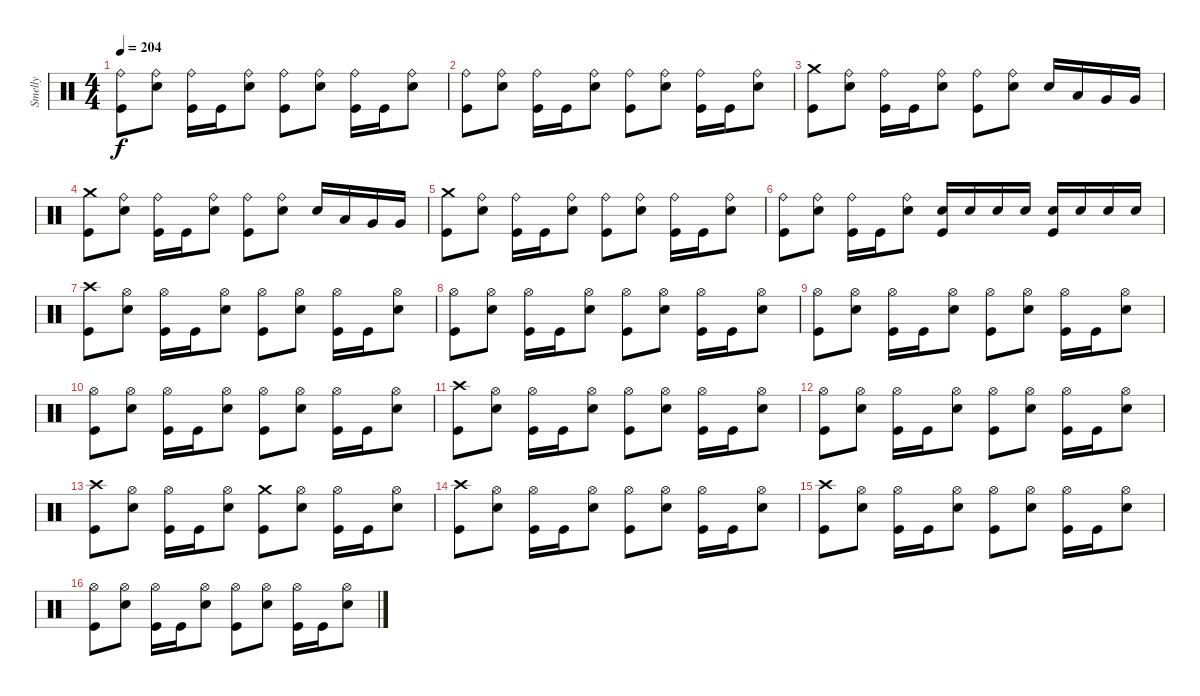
\track ("Smelly" "Smelly") {instrument percussion}
\staff {score}
\articulation defaults
\ts (4 4)
\tempo 204
\clef neutral
\ks c
("Ride (bell)" "Kick (hit)").8{dy f} ("Ride (bell)" "Snare (hit) 2").8 ("Ride (bell)" "Kick (hit)").16 "Kick (hit)".16 ("Ride (bell)" "Snare (hit) 2").8 ("Ride (bell)" "Kick (hit)").8 ("Ride (bell)" "Snare (hit) 2").8 ("Ride (bell)" "Kick (hit)").16 "Kick (hit)".16 ("Ride (bell)" "Snare (hit) 2").8 |
("Ride (bell)" "Kick (hit)").8 ("Ride (bell)" "Snare (hit) 2").8 ("Ride (bell)" "Kick (hit)").16 "Kick (hit)".16 ("Ride (bell)" "Snare (hit) 2").8 ("Ride (bell)" "Kick (hit)").8 ("Ride (bell)" "Snare (hit) 2").8 ("Ride (bell)" "Kick (hit)").16 "Kick (hit)".16 ("Ride (bell)" "Snare (hit) 2").8 |
("Crash medium (hit)" "Kick (hit)").8 ("Ride (bell)" "Snare (hit) 2").8 ("Ride (bell)" "Kick (hit)").16 "Kick (hit)".16 ("Ride (bell)" "Snare (hit) 2").8 ("Ride (bell)" "Kick (hit)").8 ("Ride (bell)" "Snare (hit) 2").8 "Snare (hit) 2".16 "Low Tom (hit)".16 "Very Low Tom (hit)".16 "Very Low Tom (hit)".16 |
("Crash medium (hit)" "Kick (hit)").8 ("Ride (bell)" "Snare (hit) 2").8 ("Ride (bell)" "Kick (hit)").16 "Kick (hit)".16 ("Ride (bell)" "Snare (hit) 2").8 ("Ride (bell)" "Kick (hit)").8 ("Ride (bell)" "Snare (hit) 2").8 "Snare (hit) 2".16 "Low Tom (hit)".16 "Very Low Tom (hit)".16 "Very Low Tom (hit)".16 |
("Crash medium (hit)" "Kick (hit)").8 ("Ride (bell)" "Snare (hit) 2").8 ("Ride (bell)" "Kick (hit)").16 "Kick (hit)".16 ("Ride (bell)" "Snare (hit) 2").8 ("Ride (bell)" "Kick (hit)").8 ("Ride (bell)" "Snare (hit) 2").8 ("Ride (bell)" "Kick (hit)").16 "Kick (hit)".16 ("Ride (bell)" "Snare (hit) 2").8 |
("Ride (bell)" "Kick (hit)").8 ("Ride (bell)" "Snare (hit) 2").8 ("Ride (bell)" "Kick (hit)").16 "Kick (hit)".16 ("Ride (bell)" "Snare (hit) 2").8 ("Snare (hit) 2" "Kick (hit)").16 "Snare (hit) 2".16 "Snare (hit) 2".16 "Snare (hit) 2".16 ("Snare (hit) 2" "Kick (hit)").16 "Snare (hit) 2".16 "Snare (hit) 2".16 "Snare (hit) 2".16 |
("Crash high (hit)" "Kick (hit)").8 ("Hi-Hat (open)" "Snare (hit) 2").8 ("Hi-Hat (open)" "Kick (hit)").16 "Kick (hit)".16 ("Hi-Hat (open)" "Snare (hit) 2").8 ("Hi-Hat (open)" "Kick (hit)").8 ("Hi-Hat (open)" "Snare (hit) 2").8 ("Hi-Hat (open)" "Kick (hit)").16 "Kick (hit)".16 ("Hi-Hat (open)" "Snare (hit) 2").8 |
("Hi-Hat (open)" "Kick (hit)").8 ("Hi-Hat (open)" "Snare (hit) 2").8 ("Hi-Hat (open)" "Kick (hit)").16 "Kick (hit)".16 ("Hi-Hat (open)" "Snare (hit) 2").8 ("Hi-Hat (open)" "Kick (hit)").8 ("Hi-Hat (open)" "Snare (hit) 2").8 ("Hi-Hat (open)" "Kick (hit)").16 "Kick (hit)".16 ("Hi-Hat (open)" "Snare (hit) 2").8 |
("Hi-Hat (open)" "Kick (hit)").8 ("Hi-Hat (open)" "Snare (hit) 2").8 ("Hi-Hat (open)" "Kick (hit)").16 "Kick (hit)".16 ("Hi-Hat (open)" "Snare (hit) 2").8 ("Hi-Hat (open)" "Kick (hit)").8 ("Hi-Hat (open)" "Snare (hit) 2").8 ("Hi-Hat (open)" "Kick (hit)").16 "Kick (hit)".16 ("Hi-Hat (open)" "Snare (hit) 2").8 |
("Hi-Hat (open)" "Kick (hit)").8 ("Hi-Hat (open)" "Snare (hit) 2").8 ("Hi-Hat (open)" "Kick (hit)").16 "Kick (hit)".16 ("Hi-Hat (open)" "Snare (hit) 2").8 ("Hi-Hat (open)" "Kick (hit)").8 ("Hi-Hat (open)" "Snare (hit) 2").8 ("Hi-Hat (open)" "Kick (hit)").16 "Kick (hit)".16 ("Hi-Hat (open)" "Snare (hit) 2").8 |
("Crash high (hit)" "Kick (hit)").8 ("Hi-Hat (open)" "Snare (hit) 2").8 ("Hi-Hat (open)" "Kick (hit)").16 "Kick (hit)".16 ("Hi-Hat (open)" "Snare (hit) 2").8 ("Hi-Hat (open)" "Kick (hit)").8 ("Hi-Hat (open)" "Snare (hit) 2").8 ("Hi-Hat (open)" "Kick (hit)").16 "Kick (hit)".16 ("Hi-Hat (open)" "Snare (hit) 2").8 |
("Hi-Hat (open)" "Kick (hit)").8 ("Hi-Hat (open)" "Snare (hit) 2").8 ("Hi-Hat (open)" "Kick (hit)").16 "Kick (hit)".16 ("Hi-Hat (open)" "Snare (hit) 2").8 ("Hi-Hat (open)" "Kick (hit)").8 ("Hi-Hat (open)" "Snare (hit) 2").8 ("Hi-Hat (open)" "Kick (hit)").16 "Kick (hit)".16 ("Hi-Hat (open)" "Snare (hit) 2").8 |
("Crash high (hit)" "Kick (hit)").8 ("Hi-Hat (open)" "Snare (hit) 2").8 ("Hi-Hat (open)" "Kick (hit)").16 "Kick (hit)".16 ("Hi-Hat (open)" "Snare (hit) 2").8 ("Crash medium (hit)" "Kick (hit)").8 ("Hi-Hat (open)" "Snare (hit) 2").8 ("Hi-Hat (open)" "Kick (hit)").16 "Kick (hit)".16 ("Hi-Hat (open)" "Snare (hit) 2").8 |
("Crash high (hit)" "Kick (hit)").8 ("Hi-Hat (open)" "Snare (hit) 2").8 ("Hi-Hat (open)" "Kick (hit)").16 "Kick (hit)".16 ("Hi-Hat (open)" "Snare (hit) 2").8 ("Hi-Hat (open)" "Kick (hit)").8 ("Hi-Hat (open)" "Snare (hit) 2").8 ("Hi-Hat (open)" "Kick (hit)").16 "Kick (hit)".16 ("Hi-Hat (open)" "Snare (hit) 2").8 |
("Crash high (hit)" "Kick (hit)").8 ("Hi-Hat (open)" "Snare (hit) 2").8 ("Hi-Hat (open)" "Kick (hit)").16 "Kick (hit)".16 ("Hi-Hat (open)" "Snare (hit) 2").8 ("Hi-Hat (open)" "Kick (hit)").8 ("Hi-Hat (open)" "Snare (hit) 2").8 ("Hi-Hat (open)" "Kick (hit)").16 "Kick (hit)".16 ("Hi-Hat (open)" "Snare (hit) 2").8 |
("Hi-Hat (open)" "Kick (hit)").8 ("Hi-Hat (open)" "Snare (hit) 2").8 ("Hi-Hat (open)" "Kick (hit)").16 "Kick (hit)".16 ("Hi-Hat (open)" "Snare (hit) 2").8 ("Hi-Hat (open)" "Kick (hit)").8 ("Hi-Hat (open)" "Snare (hit) 2").8 ("Hi-Hat (open)" "Kick (hit)").16 "Kick (hit)".16 ("Hi-Hat (open)" "Snare (hit) 2").8
